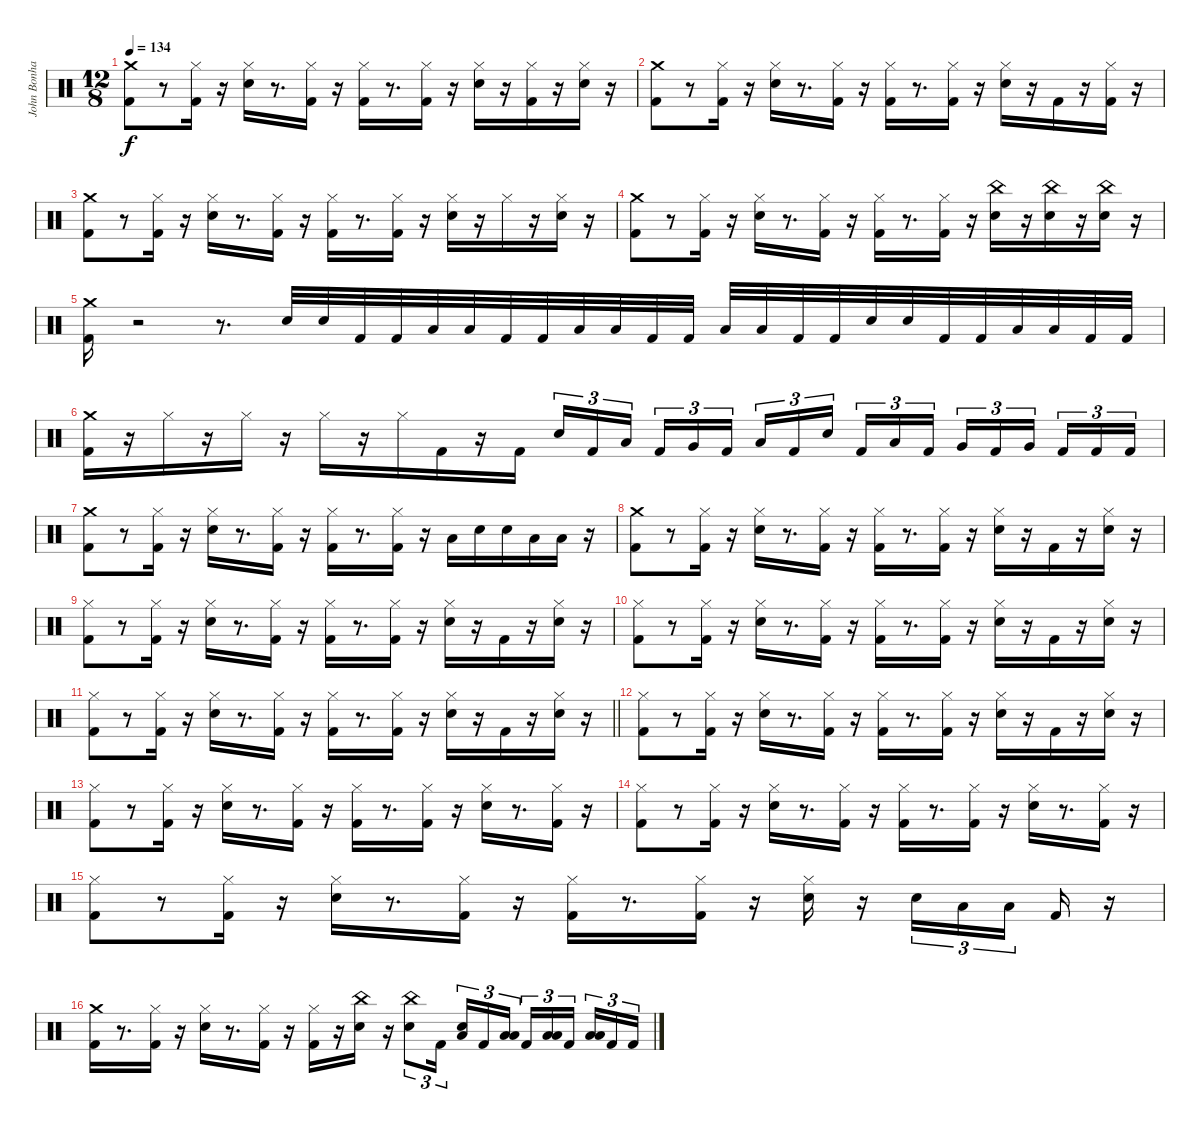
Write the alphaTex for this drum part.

\track ("John Bonham - Drums" "John Bonha") {instrument percussion}
\staff {score}
\articulation defaults
\ts (12 8)
\tempo 134
\clef neutral
\ks c
("Kick (hit) 2" "Crash medium (hit)").8{dy f} r.8 ("Kick (hit) 2" "Hi-Hat (closed)").16 r.16 ("Hi-Hat (closed)" "Electric Snare (hit)").16 r.8{d} ("Hi-Hat (closed)" "Kick (hit) 2").16 r.16 ("Hi-Hat (closed)" "Kick (hit) 2").16 r.8{d} ("Hi-Hat (closed)" "Kick (hit) 2").16 r.16 ("Hi-Hat (closed)" "Electric Snare (hit)").16 r.16 ("Kick (hit) 2" "Hi-Hat (closed)").16 r.16 ("Hi-Hat (closed)" "Electric Snare (hit)").16 r.16 |
("Kick (hit) 2" "Crash medium (hit)").8 r.8 ("Kick (hit) 2" "Hi-Hat (closed)").16 r.16 ("Hi-Hat (closed)" "Electric Snare (hit)").16 r.8{d} ("Hi-Hat (closed)" "Kick (hit) 2").16 r.16 ("Hi-Hat (closed)" "Kick (hit) 2").16 r.8{d} ("Hi-Hat (closed)" "Kick (hit) 2").16 r.16 ("Hi-Hat (closed)" "Electric Snare (hit)").16 r.16 "Kick (hit) 2".16 r.16 ("Hi-Hat (closed)" "Kick (hit) 2").16 r.16 |
("Kick (hit) 2" "Crash medium (hit)").8 r.8 ("Kick (hit) 2" "Hi-Hat (closed)").16 r.16 ("Hi-Hat (closed)" "Electric Snare (hit)").16 r.8{d} ("Hi-Hat (closed)" "Kick (hit) 2").16 r.16 ("Hi-Hat (closed)" "Kick (hit) 2").16 r.8{d} ("Hi-Hat (closed)" "Kick (hit) 2").16 r.16 ("Hi-Hat (closed)" "Electric Snare (hit)").16 r.16 "Hi-Hat (closed)".16 r.16 ("Hi-Hat (closed)" "Electric Snare (hit)").16 r.16 |
("Kick (hit) 2" "Crash medium (hit)").8 r.8 ("Kick (hit) 2" "Hi-Hat (closed)").16 r.16 ("Hi-Hat (closed)" "Electric Snare (hit)").16 r.8{d} ("Hi-Hat (closed)" "Kick (hit) 2").16 r.16 ("Hi-Hat (closed)" "Kick (hit) 2").16 r.8{d} ("Hi-Hat (closed)" "Kick (hit) 2").16 r.16 ("Electric Snare (hit)" "China (hit)").16 r.16 ("Electric Snare (hit)" "China (hit)").16 r.16 ("Electric Snare (hit)" "China (hit)").16 r.16 |
("Kick (hit) 2" "Crash medium (hit)").16 r.2 r.8{d} "Electric Snare (hit)".32 "Electric Snare (hit)".32 "Kick (hit) 2".32 "Kick (hit) 2".32 "Low Tom (hit)".32 "Low Tom (hit)".32 "Kick (hit) 2".32 "Kick (hit) 2".32 "Low Floor Tom (hit)".32 "Low Floor Tom (hit)".32 "Kick (hit) 2".32 "Kick (hit) 2".32 "Low Tom (hit)".32 "Low Tom (hit)".32 "Kick (hit) 2".32 "Kick (hit) 2".32 "Electric Snare (hit)".32 "Electric Snare (hit)".32 "Kick (hit) 2".32 "Kick (hit) 2".32 "Low Tom (hit)".32 "Low Tom (hit)".32 "Kick (hit) 2".32 "Kick (hit) 2".32 |
("Crash medium (hit)" "Kick (hit) 2").16 r.16 "Hi-Hat (closed)".16 r.16 "Hi-Hat (closed)".16 r.16 "Hi-Hat (closed)".16 r.16 "Hi-Hat (closed)".16 "Kick (hit) 2".16 r.16 "Kick (hit) 2".16 "Electric Snare (hit)".16{tu (3 2)} "Kick (hit) 2".16{tu (3 2)} "Low Tom (hit)".16{tu (3 2) beam splitsecondary} "Kick (hit) 2".16{tu (3 2)} "Very Low Tom (hit)".16{tu (3 2)} "Kick (hit) 2".16{tu (3 2) beam splitsecondary} "Low Floor Tom (hit)".16{tu (3 2)} "Kick (hit) 2".16{tu (3 2)} "Electric Snare (hit)".16{tu (3 2)} "Kick (hit) 2".16{tu (3 2)} "Low Tom (hit)".16{tu (3 2)} "Kick (hit) 2".16{tu (3 2) beam splitsecondary} "Very Low Tom (hit)".16{tu (3 2)} "Kick (hit) 2".16{tu (3 2)} "Very Low Tom (hit)".16{tu (3 2) beam splitsecondary} "Kick (hit) 2".16{tu (3 2)} "Kick (hit) 2".16{tu (3 2)} "Kick (hit) 2".16{tu (3 2)} |
("Kick (hit) 2" "Crash medium (hit)").8 r.8 ("Kick (hit) 2" "Hi-Hat (closed)").16 r.16 ("Hi-Hat (closed)" "Electric Snare (hit)").16 r.8{d} ("Hi-Hat (closed)" "Kick (hit) 2").16 r.16 ("Hi-Hat (closed)" "Kick (hit) 2").16 r.8{d} ("Kick (hit) 2" "Hi-Hat (closed)").16 r.16 "Low Tom (hit)".16 "Electric Snare (hit)".16 "Electric Snare (hit)".16 "Low Tom (hit)".16 "Low Floor Tom (hit)".16 r.16 |
("Kick (hit) 2" "Crash medium (hit)").8 r.8 ("Kick (hit) 2" "Hi-Hat (closed)").16 r.16 ("Hi-Hat (closed)" "Electric Snare (hit)").16 r.8{d} ("Hi-Hat (closed)" "Kick (hit) 2").16 r.16 ("Hi-Hat (closed)" "Kick (hit) 2").16 r.8{d} ("Hi-Hat (closed)" "Kick (hit) 2").16 r.16 ("Hi-Hat (closed)" "Electric Snare (hit)").16 r.16 "Kick (hit) 2".16 r.16 ("Hi-Hat (closed)" "Electric Snare (hit)").16 r.16 |
("Kick (hit) 2" "Hi-Hat (closed)").8 r.8 ("Kick (hit) 2" "Hi-Hat (closed)").16 r.16 ("Hi-Hat (closed)" "Electric Snare (hit)").16 r.8{d} ("Hi-Hat (closed)" "Kick (hit) 2").16 r.16 ("Hi-Hat (closed)" "Kick (hit) 2").16 r.8{d} ("Hi-Hat (closed)" "Kick (hit) 2").16 r.16 ("Hi-Hat (closed)" "Electric Snare (hit)").16 r.16 "Kick (hit) 2".16 r.16 ("Hi-Hat (closed)" "Electric Snare (hit)").16 r.16 |
("Kick (hit) 2" "Hi-Hat (closed)").8 r.8 ("Kick (hit) 2" "Hi-Hat (closed)").16 r.16 ("Hi-Hat (closed)" "Electric Snare (hit)").16 r.8{d} ("Hi-Hat (closed)" "Kick (hit) 2").16 r.16 ("Hi-Hat (closed)" "Kick (hit) 2").16 r.8{d} ("Hi-Hat (closed)" "Kick (hit) 2").16 r.16 ("Hi-Hat (closed)" "Electric Snare (hit)").16 r.16 "Kick (hit) 2".16 r.16 ("Hi-Hat (closed)" "Electric Snare (hit)").16 r.16 |
\barLineRight lightlight
("Kick (hit) 2" "Hi-Hat (closed)").8 r.8 ("Kick (hit) 2" "Hi-Hat (closed)").16 r.16 ("Hi-Hat (closed)" "Electric Snare (hit)").16 r.8{d} ("Hi-Hat (closed)" "Kick (hit) 2").16 r.16 ("Hi-Hat (closed)" "Kick (hit) 2").16 r.8{d} ("Hi-Hat (closed)" "Kick (hit) 2").16 r.16 ("Hi-Hat (closed)" "Electric Snare (hit)").16 r.16 "Kick (hit) 2".16 r.16 ("Hi-Hat (closed)" "Electric Snare (hit)").16 r.16 |
("Kick (hit) 2" "Hi-Hat (closed)").8 r.8 ("Kick (hit) 2" "Hi-Hat (closed)").16 r.16 ("Hi-Hat (closed)" "Electric Snare (hit)").16 r.8{d} ("Hi-Hat (closed)" "Kick (hit) 2").16 r.16 ("Hi-Hat (closed)" "Kick (hit) 2").16 r.8{d} ("Hi-Hat (closed)" "Kick (hit) 2").16 r.16 ("Hi-Hat (closed)" "Electric Snare (hit)").16 r.16 "Kick (hit) 2".16 r.16 ("Hi-Hat (closed)" "Electric Snare (hit)").16 r.16 |
("Kick (hit) 2" "Hi-Hat (closed)").8 r.8 ("Kick (hit) 2" "Hi-Hat (closed)").16 r.16 ("Hi-Hat (closed)" "Electric Snare (hit)").16 r.8{d} ("Hi-Hat (closed)" "Kick (hit) 2").16 r.16 ("Hi-Hat (closed)" "Kick (hit) 2").16 r.8{d} ("Hi-Hat (closed)" "Kick (hit) 2").16 r.16 ("Hi-Hat (closed)" "Electric Snare (hit)").16 r.8{d} ("Hi-Hat (closed)" "Kick (hit) 2").16 r.16 |
("Kick (hit) 2" "Hi-Hat (closed)").8 r.8 ("Kick (hit) 2" "Hi-Hat (closed)").16 r.16 ("Hi-Hat (closed)" "Electric Snare (hit)").16 r.8{d} ("Hi-Hat (closed)" "Kick (hit) 2").16 r.16 ("Hi-Hat (closed)" "Kick (hit) 2").16 r.8{d} ("Hi-Hat (closed)" "Kick (hit) 2").16 r.16 ("Hi-Hat (closed)" "Electric Snare (hit)").16 r.8{d} ("Hi-Hat (closed)" "Kick (hit) 2").16 r.16 |
("Kick (hit) 2" "Hi-Hat (closed)").8 r.8 ("Kick (hit) 2" "Hi-Hat (closed)").16 r.16 ("Hi-Hat (closed)" "Electric Snare (hit)").16 r.8{d} ("Hi-Hat (closed)" "Kick (hit) 2").16 r.16 ("Hi-Hat (closed)" "Kick (hit) 2").16 r.8{d} ("Hi-Hat (closed)" "Kick (hit) 2").16 r.16 ("Hi-Hat (closed)" "Electric Snare (hit)").16 r.16 "Electric Snare (hit)".16{tu (3 2)} "Low Tom (hit)".16{tu (3 2)} "Low Floor Tom (hit)".16{tu (3 2) beam splitsecondary} "Kick (hit) 2".16 r.16 |
("Crash medium (hit)" "Kick (hit) 2").16 r.8{d} ("Hi-Hat (closed)" "Kick (hit) 2").16 r.16 ("Hi-Hat (closed)" "Electric Snare (hit)").16 r.8{d} ("Hi-Hat (closed)" "Kick (hit) 2").16 r.16 ("Hi-Hat (closed)" "Kick (hit) 2").16 r.16 ("China (hit)" "Electric Snare (hit)").16 r.16 ("China (hit)" "Electric Snare (hit)").8{tu (3 2)} "Kick (hit) 2".16{tu (3 2)} ("Electric Snare (hit)" "Low Tom (hit)").16{tu (3 2)} "Kick (hit) 2".16{tu (3 2)} ("Low Tom (hit)" "Low Floor Tom (hit)").16{tu (3 2) beam splitsecondary} "Kick (hit) 2".16{tu (3 2)} ("Low Tom (hit)" "Low Floor Tom (hit)").16{tu (3 2)} "Kick (hit) 2".16{tu (3 2) beam splitsecondary} ("Low Tom (hit)" "Low Floor Tom (hit)").16{tu (3 2)} "Kick (hit) 2".16{tu (3 2)} "Kick (hit) 2".16{tu (3 2)}
